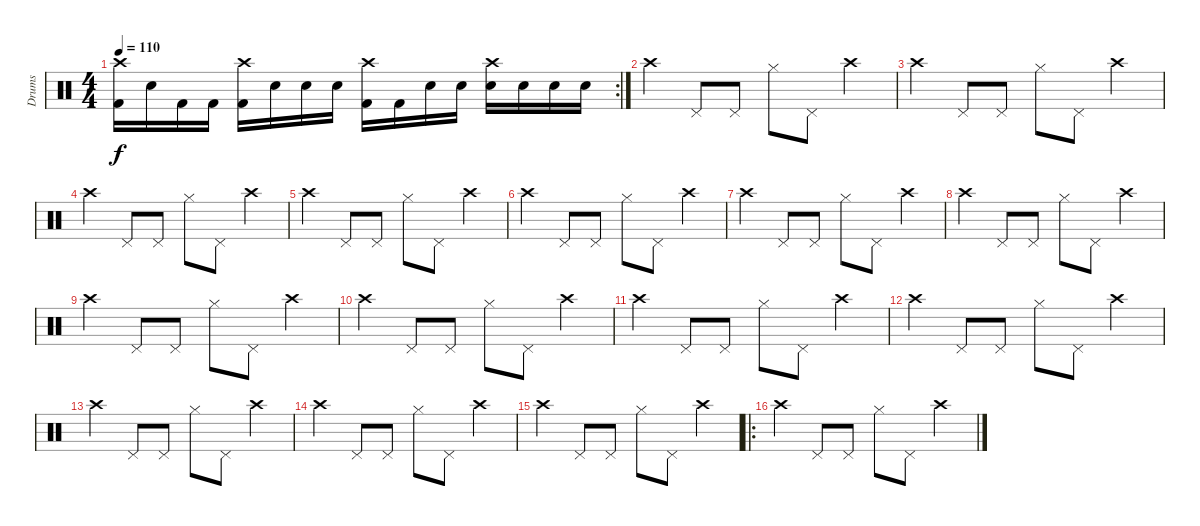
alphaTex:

\track ("Drums" "Drums") {instrument percussion}
\staff {score}
\articulation defaults
\rc 2
\ts (4 4)
\tempo 110
\clef neutral
\ks c
("Kick (hit) 2" "Crash high (hit)").16{dy f} "Snare (hit)".16 "Kick (hit) 2".16 "Kick (hit) 2".16 ("Kick (hit) 2" "Crash high (hit)").16 "Electric Snare (hit)".16 "Snare (hit)".16 "Snare (hit)".16 ("Kick (hit) 2" "Crash high (hit)").16 "Kick (hit) 2".16 "Electric Snare (hit)".16 "Snare (hit)".16 ("Electric Snare (hit)" "Crash high (hit)").16 "Electric Snare (hit)".16 "Electric Snare (hit)".16 "Snare (hit)".16 |
"Crash high (hit)".4 "Pedal Hi-Hat (hit)".8 "Pedal Hi-Hat (hit)".8 "Hi-Hat (closed)".8 "Pedal Hi-Hat (hit)".8 "Crash high (hit)".4 |
"Crash high (hit)".4 "Pedal Hi-Hat (hit)".8 "Pedal Hi-Hat (hit)".8 "Hi-Hat (closed)".8 "Pedal Hi-Hat (hit)".8 "Crash high (hit)".4 |
"Crash high (hit)".4 "Pedal Hi-Hat (hit)".8 "Pedal Hi-Hat (hit)".8 "Hi-Hat (closed)".8 "Pedal Hi-Hat (hit)".8 "Crash high (hit)".4 |
"Crash high (hit)".4 "Pedal Hi-Hat (hit)".8 "Pedal Hi-Hat (hit)".8 "Hi-Hat (closed)".8 "Pedal Hi-Hat (hit)".8 "Crash high (hit)".4 |
"Crash high (hit)".4 "Pedal Hi-Hat (hit)".8 "Pedal Hi-Hat (hit)".8 "Hi-Hat (closed)".8 "Pedal Hi-Hat (hit)".8 "Crash high (hit)".4 |
"Crash high (hit)".4 "Pedal Hi-Hat (hit)".8 "Pedal Hi-Hat (hit)".8 "Hi-Hat (closed)".8 "Pedal Hi-Hat (hit)".8 "Crash high (hit)".4 |
"Crash high (hit)".4 "Pedal Hi-Hat (hit)".8 "Pedal Hi-Hat (hit)".8 "Hi-Hat (closed)".8 "Pedal Hi-Hat (hit)".8 "Crash high (hit)".4 |
"Crash high (hit)".4 "Pedal Hi-Hat (hit)".8 "Pedal Hi-Hat (hit)".8 "Hi-Hat (closed)".8 "Pedal Hi-Hat (hit)".8 "Crash high (hit)".4 |
"Crash high (hit)".4 "Pedal Hi-Hat (hit)".8 "Pedal Hi-Hat (hit)".8 "Hi-Hat (closed)".8 "Pedal Hi-Hat (hit)".8 "Crash high (hit)".4 |
"Crash high (hit)".4 "Pedal Hi-Hat (hit)".8 "Pedal Hi-Hat (hit)".8 "Hi-Hat (closed)".8 "Pedal Hi-Hat (hit)".8 "Crash high (hit)".4 |
"Crash high (hit)".4 "Pedal Hi-Hat (hit)".8 "Pedal Hi-Hat (hit)".8 "Hi-Hat (closed)".8 "Pedal Hi-Hat (hit)".8 "Crash high (hit)".4 |
"Crash high (hit)".4 "Pedal Hi-Hat (hit)".8 "Pedal Hi-Hat (hit)".8 "Hi-Hat (closed)".8 "Pedal Hi-Hat (hit)".8 "Crash high (hit)".4 |
"Crash high (hit)".4 "Pedal Hi-Hat (hit)".8 "Pedal Hi-Hat (hit)".8 "Hi-Hat (closed)".8 "Pedal Hi-Hat (hit)".8 "Crash high (hit)".4 |
"Crash high (hit)".4 "Pedal Hi-Hat (hit)".8 "Pedal Hi-Hat (hit)".8 "Hi-Hat (closed)".8 "Pedal Hi-Hat (hit)".8 "Crash high (hit)".4 |
\ro "Crash high (hit)".4 "Pedal Hi-Hat (hit)".8 "Pedal Hi-Hat (hit)".8 "Hi-Hat (closed)".8 "Pedal Hi-Hat (hit)".8 "Crash high (hit)".4
